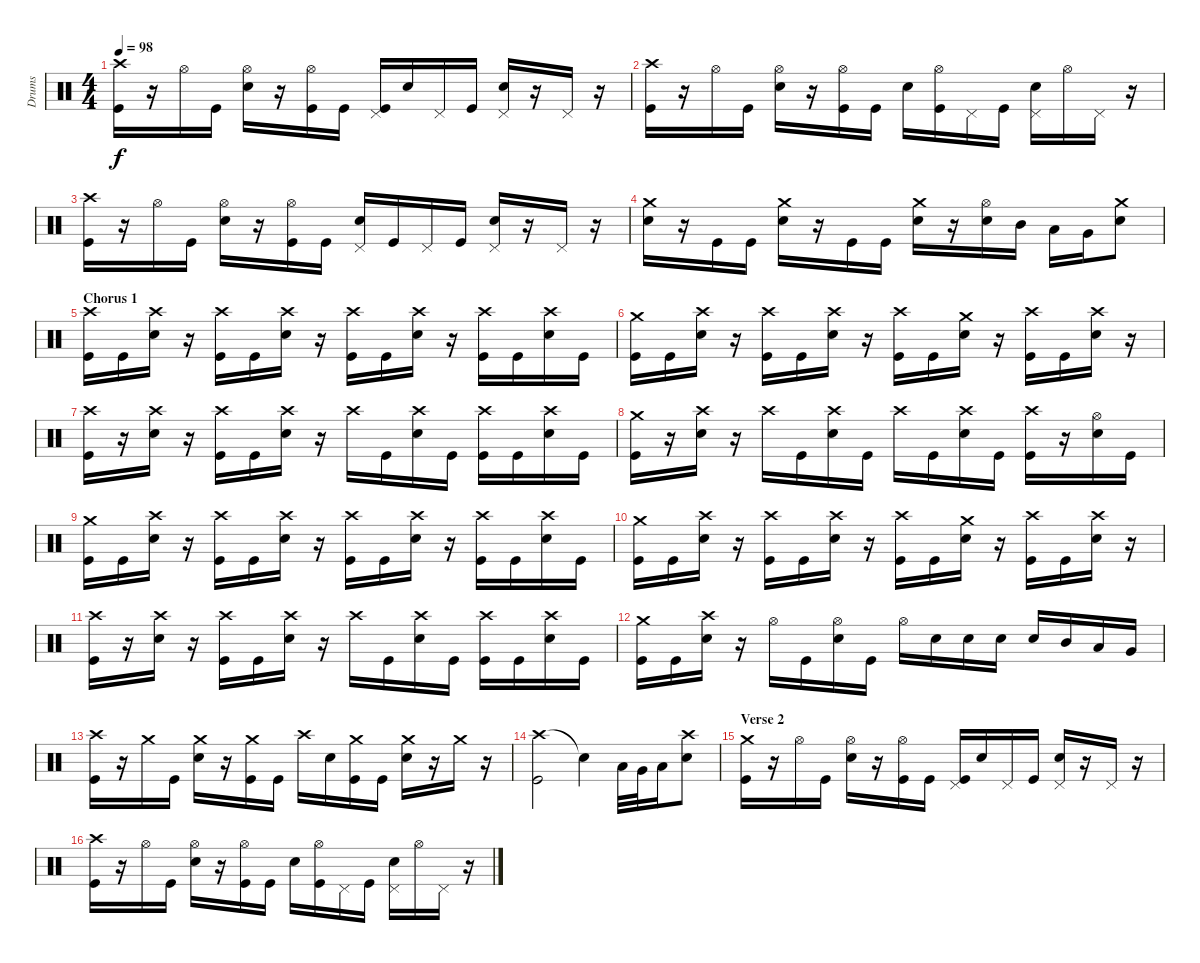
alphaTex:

\track ("Drums" "Drums") {instrument percussion}
\staff {score}
\articulation defaults
\ts (4 4)
\tempo 98
\clef neutral
\ks c
("Crash high (hit)" "Kick (hit)").16{dy f} r.16 "Hi-Hat (open)".16 "Kick (hit)".16 ("Hi-Hat (open)" "Electric Snare (hit)").16 r.16 ("Hi-Hat (open)" "Kick (hit)").16 "Kick (hit)".16 ("Pedal Hi-Hat (hit)" "Kick (hit)").16 "Electric Snare (hit)".16 "Pedal Hi-Hat (hit)".16 "Kick (hit)".16 ("Pedal Hi-Hat (hit)" "Electric Snare (hit)").16 r.16 "Pedal Hi-Hat (hit)".16 r.16 |
("Crash high (hit)" "Kick (hit)").16 r.16 "Hi-Hat (open)".16 "Kick (hit)".16 ("Hi-Hat (open)" "Electric Snare (hit)").16 r.16 ("Hi-Hat (open)" "Kick (hit)").16 "Kick (hit)".16 "Electric Snare (hit)".16 ("Hi-Hat (open)" "Kick (hit)").16 "Pedal Hi-Hat (hit)".16 "Kick (hit)".16 ("Pedal Hi-Hat (hit)" "Electric Snare (hit)").16 "Hi-Hat (open)".16 "Pedal Hi-Hat (hit)".16 r.16 |
("Crash high (hit)" "Kick (hit)").16 r.16 "Hi-Hat (open)".16 "Kick (hit)".16 ("Hi-Hat (open)" "Electric Snare (hit)").16 r.16 ("Hi-Hat (open)" "Kick (hit)").16 "Kick (hit)".16 ("Pedal Hi-Hat (hit)" "Electric Snare (hit)").16 "Kick (hit)".16 "Pedal Hi-Hat (hit)".16 "Kick (hit)".16 ("Pedal Hi-Hat (hit)" "Electric Snare (hit)").16 r.16 "Pedal Hi-Hat (hit)".16 r.16 |
("Crash medium (hit)" "Electric Snare (hit)").16 r.16 "Kick (hit)".16 "Kick (hit)".16 ("Crash medium (hit)" "Electric Snare (hit)").16 r.16 "Kick (hit)".16 "Kick (hit)".16 ("Crash medium (hit)" "Electric Snare (hit)").16 r.16 ("Hi-Hat (open)" "Electric Snare (hit)").16 "Mid Tom (hit)".16 "Low Tom (hit)".16 "Very Low Tom (hit)".16 ("Crash medium (hit)" "Electric Snare (hit)").8 |
\section ("" "Chorus 1")
("Crash high (hit)" "Kick (hit)").16 "Kick (hit)".16 ("Crash high (hit)" "Electric Snare (hit)").16 r.16 ("Crash high (hit)" "Kick (hit)").16 "Kick (hit)".16 ("Crash high (hit)" "Electric Snare (hit)").16 r.16 ("Crash high (hit)" "Kick (hit)").16 "Kick (hit)".16 ("Crash high (hit)" "Electric Snare (hit)").16 r.16 ("Crash high (hit)" "Kick (hit)").16 "Kick (hit)".16 ("Crash high (hit)" "Electric Snare (hit)").16 "Kick (hit)".16 |
("Crash medium (hit)" "Kick (hit)").16 "Kick (hit)".16 ("Crash high (hit)" "Electric Snare (hit)").16 r.16 ("Crash high (hit)" "Kick (hit)").16 "Kick (hit)".16 ("Crash high (hit)" "Electric Snare (hit)").16 r.16 ("Crash high (hit)" "Kick (hit)").16 "Kick (hit)".16 ("Crash medium (hit)" "Electric Snare (hit)").16 r.16 ("Crash high (hit)" "Kick (hit)").16 "Kick (hit)".16 ("Crash high (hit)" "Electric Snare (hit)").16 r.16 |
("Crash high (hit)" "Kick (hit)").16 r.16 ("Crash high (hit)" "Electric Snare (hit)").16 r.16 ("Crash high (hit)" "Kick (hit)").16 "Kick (hit)".16 ("Crash high (hit)" "Electric Snare (hit)").16 r.16 "Crash high (hit)".16 "Kick (hit)".16 ("Crash high (hit)" "Electric Snare (hit)").16 "Kick (hit)".16 ("Crash high (hit)" "Kick (hit)").16 "Kick (hit)".16 ("Crash high (hit)" "Electric Snare (hit)").16 "Kick (hit)".16 |
("Crash medium (hit)" "Kick (hit)").16 r.16 ("Crash high (hit)" "Electric Snare (hit)").16 r.16 "Crash high (hit)".16 "Kick (hit)".16 ("Crash high (hit)" "Electric Snare (hit)").16 "Kick (hit)".16 "Crash high (hit)".16 "Kick (hit)".16 ("Crash high (hit)" "Electric Snare (hit)").16 "Kick (hit)".16 ("Crash high (hit)" "Kick (hit)").16 r.16 ("Hi-Hat (open)" "Electric Snare (hit)").16 "Kick (hit)".16 |
("Crash medium (hit)" "Kick (hit)").16 "Kick (hit)".16 ("Crash high (hit)" "Electric Snare (hit)").16 r.16 ("Crash high (hit)" "Kick (hit)").16 "Kick (hit)".16 ("Crash high (hit)" "Electric Snare (hit)").16 r.16 ("Crash high (hit)" "Kick (hit)").16 "Kick (hit)".16 ("Crash high (hit)" "Electric Snare (hit)").16 r.16 ("Crash high (hit)" "Kick (hit)").16 "Kick (hit)".16 ("Crash high (hit)" "Electric Snare (hit)").16 "Kick (hit)".16 |
("Crash medium (hit)" "Kick (hit)").16 "Kick (hit)".16 ("Crash high (hit)" "Electric Snare (hit)").16 r.16 ("Crash high (hit)" "Kick (hit)").16 "Kick (hit)".16 ("Crash high (hit)" "Electric Snare (hit)").16 r.16 ("Crash high (hit)" "Kick (hit)").16 "Kick (hit)".16 ("Crash medium (hit)" "Electric Snare (hit)").16 r.16 ("Crash high (hit)" "Kick (hit)").16 "Kick (hit)".16 ("Crash high (hit)" "Electric Snare (hit)").16 r.16 |
("Crash high (hit)" "Kick (hit)").16 r.16 ("Crash high (hit)" "Electric Snare (hit)").16 r.16 ("Crash high (hit)" "Kick (hit)").16 "Kick (hit)".16 ("Crash high (hit)" "Electric Snare (hit)").16 r.16 "Crash high (hit)".16 "Kick (hit)".16 ("Crash high (hit)" "Electric Snare (hit)").16 "Kick (hit)".16 ("Crash high (hit)" "Kick (hit)").16 "Kick (hit)".16 ("Crash high (hit)" "Electric Snare (hit)").16 "Kick (hit)".16 |
("Crash medium (hit)" "Kick (hit)").16 "Kick (hit)".16 ("Crash high (hit)" "Electric Snare (hit)").16 r.16 "Hi-Hat (open)".16 "Kick (hit)".16 ("Hi-Hat (open)" "Electric Snare (hit)").16 "Kick (hit)".16 "Hi-Hat (open)".16 "Electric Snare (hit)".16 "Electric Snare (hit)".16 "Electric Snare (hit)".16 "Electric Snare (hit)".16 "Mid Tom (hit)".16 "Low Tom (hit)".16 "Very Low Tom (hit)".16 |
("Crash high (hit)" "Kick (hit)").16 r.16 "Crash medium (hit)".16 "Kick (hit)".16 ("Crash medium (hit)" "Electric Snare (hit)").16 r.16 ("Crash medium (hit)" "Kick (hit)").16 "Kick (hit)".16 "Crash high (hit)".16 "Electric Snare (hit)".16 ("Crash medium (hit)" "Kick (hit)").16 "Kick (hit)".16 ("Crash medium (hit)" "Electric Snare (hit)").16 r.16 "Crash medium (hit)".16 r.16 |
("Crash high (hit)" "Kick (hit)").2 "Snare (hit)"{t}.4 "Low Tom (hit)".32 "Very Low Tom (hit)".32 "Low Floor Tom (hit)".16 ("Crash high (hit)" "Electric Snare (hit)").8 |
\section ("" "Verse 2")
("Crash medium (hit)" "Kick (hit)").16 r.16 "Hi-Hat (open)".16 "Kick (hit)".16 ("Hi-Hat (open)" "Electric Snare (hit)").16 r.16 ("Hi-Hat (open)" "Kick (hit)").16 "Kick (hit)".16 ("Pedal Hi-Hat (hit)" "Kick (hit)").16 "Electric Snare (hit)".16 "Pedal Hi-Hat (hit)".16 "Kick (hit)".16 ("Pedal Hi-Hat (hit)" "Electric Snare (hit)").16 r.16 "Pedal Hi-Hat (hit)".16 r.16 |
("Crash high (hit)" "Kick (hit)").16 r.16 "Hi-Hat (open)".16 "Kick (hit)".16 ("Hi-Hat (open)" "Electric Snare (hit)").16 r.16 ("Hi-Hat (open)" "Kick (hit)").16 "Kick (hit)".16 "Electric Snare (hit)".16 ("Hi-Hat (open)" "Kick (hit)").16 "Pedal Hi-Hat (hit)".16 "Kick (hit)".16 ("Pedal Hi-Hat (hit)" "Electric Snare (hit)").16 "Hi-Hat (open)".16 "Pedal Hi-Hat (hit)".16 r.16
